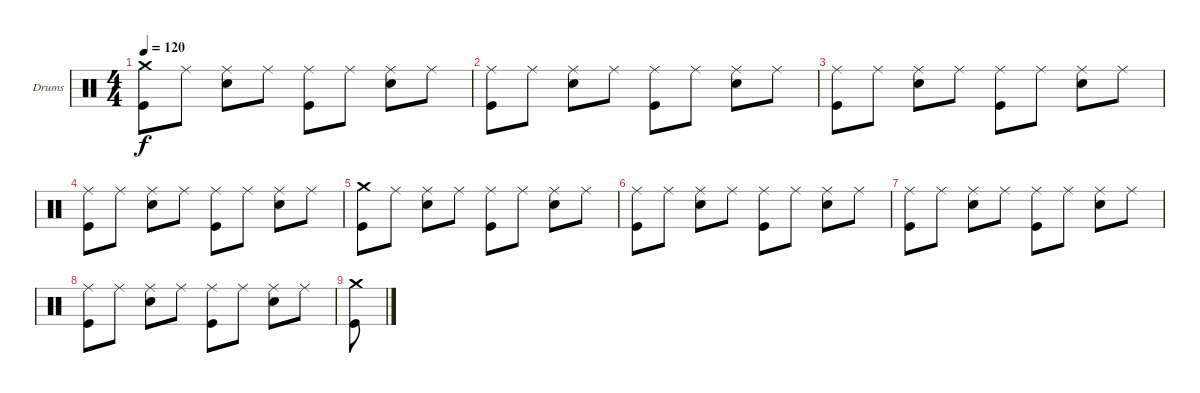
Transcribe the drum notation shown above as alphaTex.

\defaultSystemsLayout 4
\bracketExtendMode groupsimilarinstruments
\firstSystemTrackNameOrientation horizontal
\otherSystemsTrackNameOrientation horizontal
\track ("Drumkit" "Drums") {instrument percussion}
\staff {score}
\articulation defaults
\ts (4 4)
\tempo 120
\clef neutral
\ks c
("Crash medium (hit)" "Kick (hit)").8{dy f} "Ride (middle)".8 ("Ride (middle)" "Snare (hit) 2").8 "Ride (middle)".8 ("Ride (middle)" "Kick (hit)").8 "Ride (middle)".8 ("Ride (middle)" "Snare (hit) 2").8 "Ride (middle)".8 |
("Kick (hit)" "Ride (middle)").8 "Ride (middle)".8 ("Ride (middle)" "Snare (hit) 2").8 "Ride (middle)".8 ("Ride (middle)" "Kick (hit)").8 "Ride (middle)".8 ("Ride (middle)" "Snare (hit) 2").8 "Ride (middle)".8 |
("Kick (hit)" "Ride (middle)").8 "Ride (middle)".8 ("Ride (middle)" "Snare (hit) 2").8 "Ride (middle)".8 ("Ride (middle)" "Kick (hit)").8 "Ride (middle)".8 ("Ride (middle)" "Snare (hit) 2").8 "Ride (middle)".8 |
("Kick (hit)" "Ride (middle)").8 "Ride (middle)".8 ("Ride (middle)" "Snare (hit) 2").8 "Ride (middle)".8 ("Ride (middle)" "Kick (hit)").8 "Ride (middle)".8 ("Ride (middle)" "Snare (hit) 2").8 "Ride (middle)".8 |
("Crash medium (hit)" "Kick (hit)").8 "Ride (middle)".8 ("Ride (middle)" "Snare (hit) 2").8 "Ride (middle)".8 ("Ride (middle)" "Kick (hit)").8 "Ride (middle)".8 ("Ride (middle)" "Snare (hit) 2").8 "Ride (middle)".8 |
("Kick (hit)" "Ride (middle)").8 "Ride (middle)".8 ("Ride (middle)" "Snare (hit) 2").8 "Ride (middle)".8 ("Ride (middle)" "Kick (hit)").8 "Ride (middle)".8 ("Ride (middle)" "Snare (hit) 2").8 "Ride (middle)".8 |
("Kick (hit)" "Ride (middle)").8 "Ride (middle)".8 ("Ride (middle)" "Snare (hit) 2").8 "Ride (middle)".8 ("Ride (middle)" "Kick (hit)").8 "Ride (middle)".8 ("Ride (middle)" "Snare (hit) 2").8 "Ride (middle)".8 |
("Kick (hit)" "Ride (middle)").8 "Ride (middle)".8 ("Ride (middle)" "Snare (hit) 2").8 "Ride (middle)".8 ("Ride (middle)" "Kick (hit)").8 "Ride (middle)".8 ("Ride (middle)" "Snare (hit) 2").8 "Ride (middle)".8 |
("Crash medium (hit)" "Kick (hit)").8
